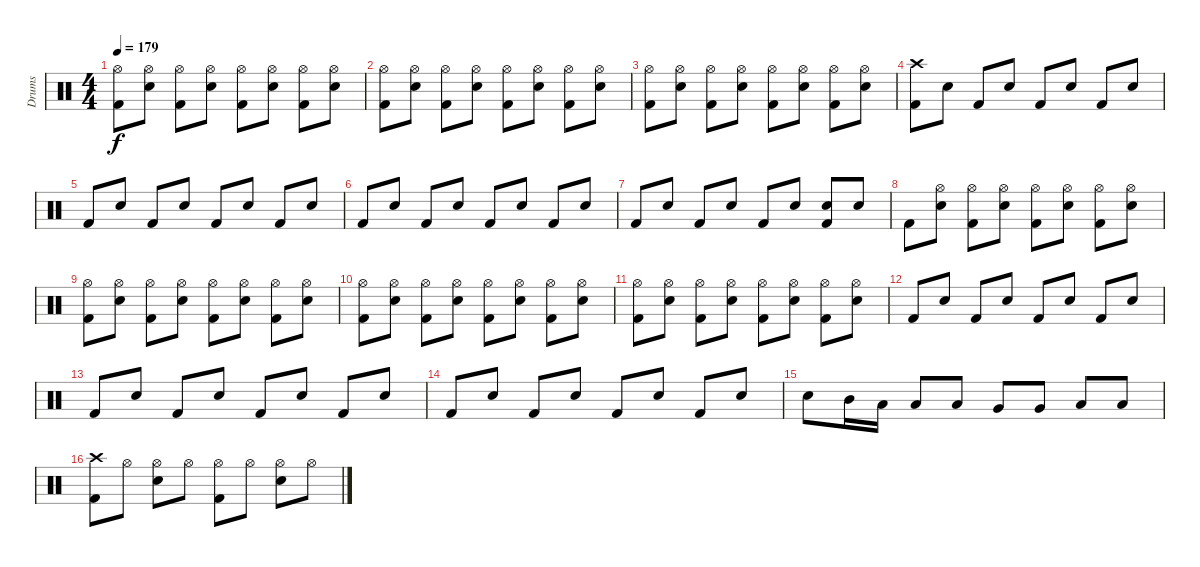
\track ("Drums" "Drums") {instrument percussion}
\staff {score}
\articulation defaults
\ts (4 4)
\tempo 179
\clef neutral
\ks c
("Hi-Hat (open)" "Kick (hit) 2").8{dy f} ("Hi-Hat (open)" "Electric Snare (hit)").8 ("Hi-Hat (open)" "Kick (hit) 2").8 ("Hi-Hat (open)" "Electric Snare (hit)").8 ("Hi-Hat (open)" "Kick (hit) 2").8 ("Hi-Hat (open)" "Electric Snare (hit)").8 ("Hi-Hat (open)" "Kick (hit) 2").8 ("Hi-Hat (open)" "Electric Snare (hit)").8 |
("Hi-Hat (open)" "Kick (hit) 2").8 ("Hi-Hat (open)" "Electric Snare (hit)").8 ("Hi-Hat (open)" "Kick (hit) 2").8 ("Hi-Hat (open)" "Electric Snare (hit)").8 ("Hi-Hat (open)" "Kick (hit) 2").8 ("Hi-Hat (open)" "Electric Snare (hit)").8 ("Hi-Hat (open)" "Kick (hit) 2").8 ("Hi-Hat (open)" "Electric Snare (hit)").8 |
("Hi-Hat (open)" "Kick (hit) 2").8 ("Hi-Hat (open)" "Electric Snare (hit)").8 ("Hi-Hat (open)" "Kick (hit) 2").8 ("Hi-Hat (open)" "Electric Snare (hit)").8 ("Hi-Hat (open)" "Kick (hit) 2").8 ("Hi-Hat (open)" "Electric Snare (hit)").8 ("Hi-Hat (open)" "Kick (hit) 2").8 ("Hi-Hat (open)" "Electric Snare (hit)").8 |
("Crash high (hit)" "Kick (hit) 2").8 "Electric Snare (hit)".8 "Kick (hit) 2".8 "Electric Snare (hit)".8 "Kick (hit) 2".8 "Electric Snare (hit)".8 "Kick (hit) 2".8 "Electric Snare (hit)".8 |
"Kick (hit) 2".8 "Electric Snare (hit)".8 "Kick (hit) 2".8 "Electric Snare (hit)".8 "Kick (hit) 2".8 "Electric Snare (hit)".8 "Kick (hit) 2".8 "Electric Snare (hit)".8 |
"Kick (hit) 2".8 "Electric Snare (hit)".8 "Kick (hit) 2".8 "Electric Snare (hit)".8 "Kick (hit) 2".8 "Electric Snare (hit)".8 "Kick (hit) 2".8 "Electric Snare (hit)".8 |
"Kick (hit) 2".8 "Electric Snare (hit)".8 "Kick (hit) 2".8 "Electric Snare (hit)".8 "Kick (hit) 2".8 "Electric Snare (hit)".8 ("Electric Snare (hit)" "Kick (hit) 2").8 "Electric Snare (hit)".8 |
"Kick (hit) 2".8 ("Hi-Hat (open)" "Electric Snare (hit)").8 ("Hi-Hat (open)" "Kick (hit) 2").8 ("Hi-Hat (open)" "Electric Snare (hit)").8 ("Hi-Hat (open)" "Kick (hit) 2").8 ("Hi-Hat (open)" "Electric Snare (hit)").8 ("Hi-Hat (open)" "Kick (hit) 2").8 ("Hi-Hat (open)" "Electric Snare (hit)").8 |
("Hi-Hat (open)" "Kick (hit) 2").8 ("Hi-Hat (open)" "Electric Snare (hit)").8 ("Hi-Hat (open)" "Kick (hit) 2").8 ("Hi-Hat (open)" "Electric Snare (hit)").8 ("Hi-Hat (open)" "Kick (hit) 2").8 ("Hi-Hat (open)" "Electric Snare (hit)").8 ("Hi-Hat (open)" "Kick (hit) 2").8 ("Hi-Hat (open)" "Electric Snare (hit)").8 |
("Hi-Hat (open)" "Kick (hit) 2").8 ("Hi-Hat (open)" "Electric Snare (hit)").8 ("Hi-Hat (open)" "Kick (hit) 2").8 ("Hi-Hat (open)" "Electric Snare (hit)").8 ("Hi-Hat (open)" "Kick (hit) 2").8 ("Hi-Hat (open)" "Electric Snare (hit)").8 ("Hi-Hat (open)" "Kick (hit) 2").8 ("Hi-Hat (open)" "Electric Snare (hit)").8 |
("Hi-Hat (open)" "Kick (hit) 2").8 ("Hi-Hat (open)" "Electric Snare (hit)").8 ("Hi-Hat (open)" "Kick (hit) 2").8 ("Hi-Hat (open)" "Electric Snare (hit)").8 ("Hi-Hat (open)" "Kick (hit) 2").8 ("Hi-Hat (open)" "Electric Snare (hit)").8 ("Hi-Hat (open)" "Kick (hit) 2").8 ("Hi-Hat (open)" "Electric Snare (hit)").8 |
"Kick (hit) 2".8 "Electric Snare (hit)".8 "Kick (hit) 2".8 "Electric Snare (hit)".8 "Kick (hit) 2".8 "Electric Snare (hit)".8 "Kick (hit) 2".8 "Electric Snare (hit)".8 |
"Kick (hit) 2".8 "Electric Snare (hit)".8 "Kick (hit) 2".8 "Electric Snare (hit)".8 "Kick (hit) 2".8 "Electric Snare (hit)".8 "Kick (hit) 2".8 "Electric Snare (hit)".8 |
"Kick (hit) 2".8 "Electric Snare (hit)".8 "Kick (hit) 2".8 "Electric Snare (hit)".8 "Kick (hit) 2".8 "Electric Snare (hit)".8 "Kick (hit) 2".8 "Electric Snare (hit)".8 |
"Electric Snare (hit)".8 "Mid Tom (hit)".16 "Low Tom (hit)".16 "Low Tom (hit)".8 "Low Tom (hit)".8 "Very Low Tom (hit)".8 "Very Low Tom (hit)".8 "Low Floor Tom (hit)".8 "Low Floor Tom (hit)".8 |
("Crash high (hit)" "Kick (hit) 2").8 "Hi-Hat (open)".8 ("Hi-Hat (open)" "Electric Snare (hit)").8 "Hi-Hat (open)".8 ("Hi-Hat (open)" "Kick (hit) 2").8 "Hi-Hat (open)".8 ("Hi-Hat (open)" "Electric Snare (hit)").8 "Hi-Hat (open)".8
